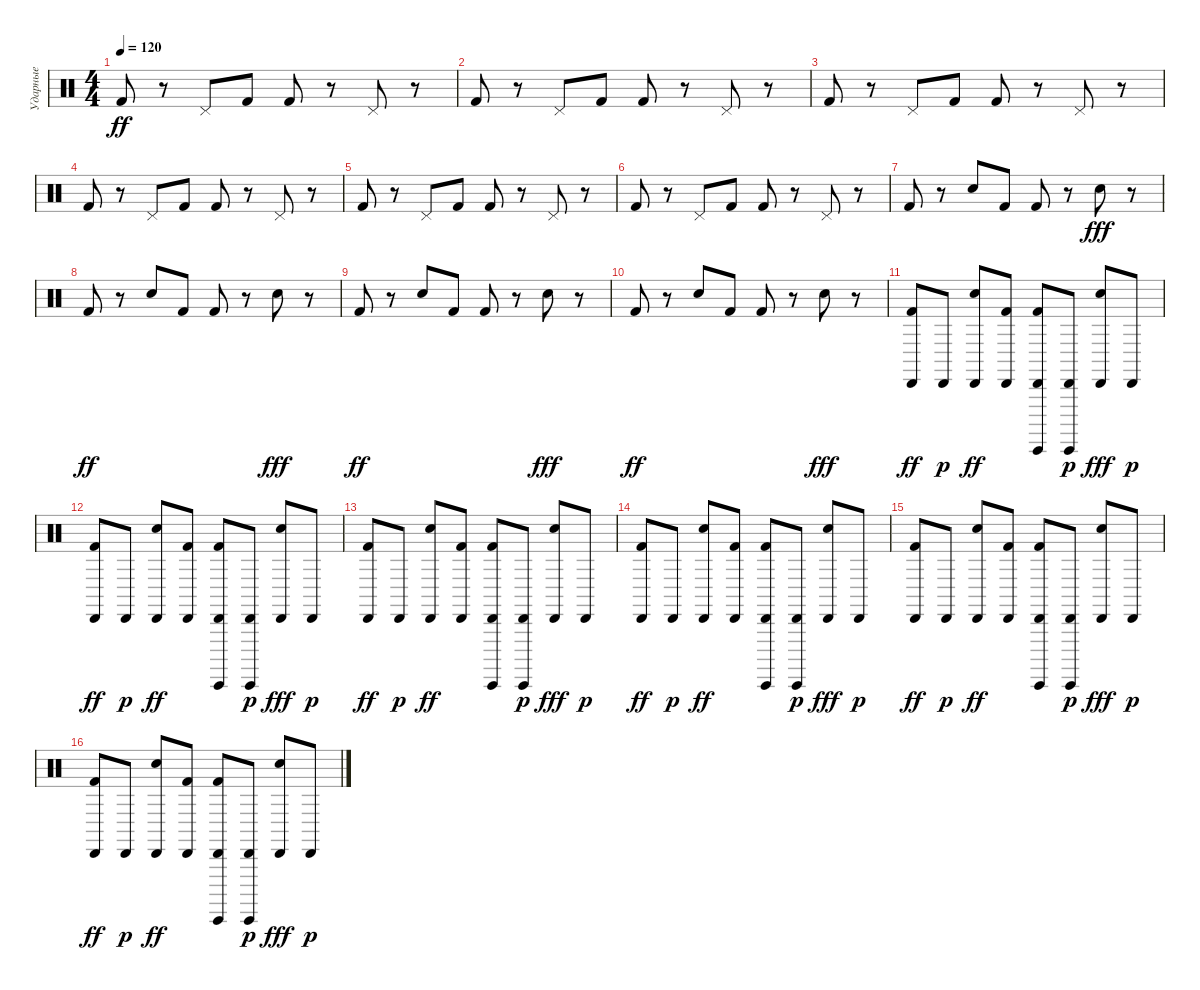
\track ("Ударные" "Ударные") {instrument percussion}
\staff {score}
\articulation defaults
\ts (4 4)
\tempo 120
\clef neutral
\ks c "Kick (hit) 2".8{dy ff}
r.8 "Pedal Hi-Hat (hit)".8 "Kick (hit) 2".8 "Kick (hit) 2".8 r.8 "Pedal Hi-Hat (hit)".8 r.8 |
"Kick (hit) 2".8 r.8 "Pedal Hi-Hat (hit)".8 "Kick (hit) 2".8 "Kick (hit) 2".8 r.8 "Pedal Hi-Hat (hit)".8 r.8 |
"Kick (hit) 2".8 r.8 "Pedal Hi-Hat (hit)".8 "Kick (hit) 2".8 "Kick (hit) 2".8 r.8 "Pedal Hi-Hat (hit)".8 r.8 |
"Kick (hit) 2".8 r.8 "Pedal Hi-Hat (hit)".8 "Kick (hit) 2".8 "Kick (hit) 2".8 r.8 "Pedal Hi-Hat (hit)".8 r.8 |
"Kick (hit) 2".8 r.8 "Pedal Hi-Hat (hit)".8 "Kick (hit) 2".8 "Kick (hit) 2".8 r.8 "Pedal Hi-Hat (hit)".8 r.8 |
"Kick (hit) 2".8 r.8 "Pedal Hi-Hat (hit)".8 "Kick (hit) 2".8 "Kick (hit) 2".8 r.8 "Pedal Hi-Hat (hit)".8 r.8 |
"Kick (hit) 2".8 r.8 "Snare (hit) 2".8 "Kick (hit) 2".8 "Kick (hit) 2".8 r.8 "Snare (hit) 2".8{dy fff} r.8 |
"Kick (hit) 2".8{dy ff} r.8 "Snare (hit) 2".8 "Kick (hit) 2".8 "Kick (hit) 2".8 r.8 "Snare (hit) 2".8{dy fff} r.8 |
"Kick (hit) 2".8{dy ff} r.8 "Snare (hit) 2".8 "Kick (hit) 2".8 "Kick (hit) 2".8 r.8 "Snare (hit) 2".8{dy fff} r.8 |
"Kick (hit) 2".8{dy ff} r.8 "Snare (hit) 2".8 "Kick (hit) 2".8 "Kick (hit) 2".8 r.8 "Snare (hit) 2".8{dy fff} r.8 |
("Cabasa (hit)" "Kick (hit) 2").8{dy ff} "Cabasa (hit)".8{dy p} ("Cabasa (hit)" "Snare (hit) 2").8{dy ff} ("Cabasa (hit)" "Kick (hit) 2").8 ("Cabasa (hit)" "Guiro (hit)" "Kick (hit) 2").8 ("Cabasa (hit)" "Guiro (hit)").8{dy p} ("Cabasa (hit)" "Snare (hit) 2").8{dy fff} "Cabasa (hit)".8{dy p} |
("Cabasa (hit)" "Kick (hit) 2").8{dy ff} "Cabasa (hit)".8{dy p} ("Cabasa (hit)" "Snare (hit) 2").8{dy ff} ("Cabasa (hit)" "Kick (hit) 2").8 ("Cabasa (hit)" "Guiro (hit)" "Kick (hit) 2").8 ("Cabasa (hit)" "Guiro (hit)").8{dy p} ("Cabasa (hit)" "Snare (hit) 2").8{dy fff} "Cabasa (hit)".8{dy p} |
("Cabasa (hit)" "Kick (hit) 2").8{dy ff} "Cabasa (hit)".8{dy p} ("Cabasa (hit)" "Snare (hit) 2").8{dy ff} ("Cabasa (hit)" "Kick (hit) 2").8 ("Cabasa (hit)" "Guiro (hit)" "Kick (hit) 2").8 ("Cabasa (hit)" "Guiro (hit)").8{dy p} ("Cabasa (hit)" "Snare (hit) 2").8{dy fff} "Cabasa (hit)".8{dy p} |
("Cabasa (hit)" "Kick (hit) 2").8{dy ff} "Cabasa (hit)".8{dy p} ("Cabasa (hit)" "Snare (hit) 2").8{dy ff} ("Cabasa (hit)" "Kick (hit) 2").8 ("Cabasa (hit)" "Guiro (hit)" "Kick (hit) 2").8 ("Cabasa (hit)" "Guiro (hit)").8{dy p} ("Cabasa (hit)" "Snare (hit) 2").8{dy fff} "Cabasa (hit)".8{dy p} |
("Cabasa (hit)" "Kick (hit) 2").8{dy ff} "Cabasa (hit)".8{dy p} ("Cabasa (hit)" "Snare (hit) 2").8{dy ff} ("Cabasa (hit)" "Kick (hit) 2").8 ("Cabasa (hit)" "Guiro (hit)" "Kick (hit) 2").8 ("Cabasa (hit)" "Guiro (hit)").8{dy p} ("Cabasa (hit)" "Snare (hit) 2").8{dy fff} "Cabasa (hit)".8{dy p} |
("Cabasa (hit)" "Kick (hit) 2").8{dy ff} "Cabasa (hit)".8{dy p} ("Cabasa (hit)" "Snare (hit) 2").8{dy ff} ("Cabasa (hit)" "Kick (hit) 2").8 ("Cabasa (hit)" "Guiro (hit)" "Kick (hit) 2").8 ("Cabasa (hit)" "Guiro (hit)").8{dy p} ("Cabasa (hit)" "Snare (hit) 2").8{dy fff} "Cabasa (hit)".8{dy p}
